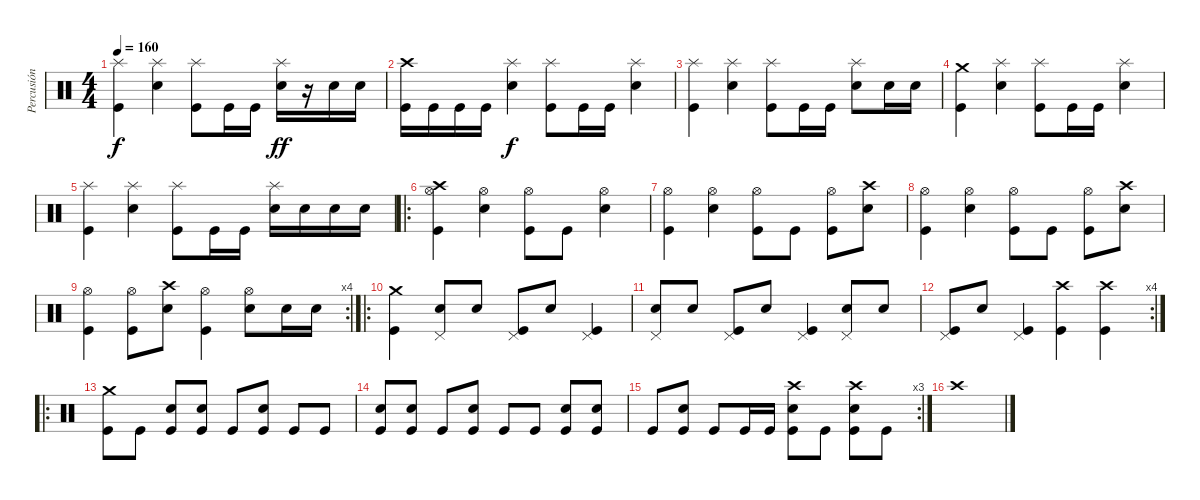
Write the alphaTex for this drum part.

\track ("Percusión" "Percusión") {instrument percussion}
\staff {score}
\articulation defaults
\ts (4 4)
\tempo 160
\clef neutral
\ks c
("Splash (hit)" "Kick (hit)").4{dy f} ("Splash (hit)" "Electric Snare (hit)").4 ("Splash (hit)" "Kick (hit)").8 "Kick (hit)".16 "Kick (hit)".16 ("Splash (hit)" "Electric Snare (hit)").16{dy ff} r.16 "Electric Snare (hit)".16 "Electric Snare (hit)".16 |
("Crash high (hit)" "Kick (hit)").16 "Kick (hit)".16 "Kick (hit)".16 "Kick (hit)".16 ("Splash (hit)" "Electric Snare (hit)").4{dy f} ("Splash (hit)" "Kick (hit)").8 "Kick (hit)".16 "Kick (hit)".16 ("Splash (hit)" "Electric Snare (hit)").4 |
("Splash (hit)" "Kick (hit)").4 ("Splash (hit)" "Electric Snare (hit)").4 ("Splash (hit)" "Kick (hit)").8 "Kick (hit)".16 "Kick (hit)".16 ("Splash (hit)" "Electric Snare (hit)").8 "Electric Snare (hit)".16 "Electric Snare (hit)".16 |
("Crash medium (hit)" "Kick (hit)").4 ("Splash (hit)" "Electric Snare (hit)").4 ("Splash (hit)" "Kick (hit)").8 "Kick (hit)".16 "Kick (hit)".16 ("Splash (hit)" "Electric Snare (hit)").4 |
("Splash (hit)" "Kick (hit)").4 ("Splash (hit)" "Electric Snare (hit)").4 ("Splash (hit)" "Kick (hit)").8 "Kick (hit)".16 "Kick (hit)".16 ("Splash (hit)" "Electric Snare (hit)").16 "Electric Snare (hit)".16 "Electric Snare (hit)".16 "Electric Snare (hit)".16 |
\ro
("Crash high (hit)" "Hi-Hat (open)" "Kick (hit)").4 ("Hi-Hat (open)" "Electric Snare (hit)").4 ("Hi-Hat (open)" "Kick (hit)").8 "Kick (hit)".8 ("Hi-Hat (open)" "Electric Snare (hit)").4 |
("Hi-Hat (open)" "Kick (hit)").4 ("Hi-Hat (open)" "Electric Snare (hit)").4 ("Hi-Hat (open)" "Kick (hit)").8 "Kick (hit)".8 ("Hi-Hat (open)" "Kick (hit)").8 ("Crash high (hit)" "Electric Snare (hit)").8 |
("Hi-Hat (open)" "Kick (hit)").4 ("Hi-Hat (open)" "Electric Snare (hit)").4 ("Hi-Hat (open)" "Kick (hit)").8 "Kick (hit)".8 ("Hi-Hat (open)" "Kick (hit)").8 ("Crash high (hit)" "Electric Snare (hit)").8 |
\rc 4
("Hi-Hat (open)" "Kick (hit)").4 ("Hi-Hat (open)" "Kick (hit)").8 ("Crash high (hit)" "Electric Snare (hit)").8 ("Hi-Hat (open)" "Kick (hit)").4 ("Hi-Hat (open)" "Electric Snare (hit)").8 "Electric Snare (hit)".16 "Electric Snare (hit)".16 |
\ro
("Crash medium (hit)" "Kick (hit)").4 ("Pedal Hi-Hat (hit)" "Electric Snare (hit)").8 "Electric Snare (hit)".8 ("Pedal Hi-Hat (hit)" "Kick (hit)").8 "Electric Snare (hit)".8 ("Pedal Hi-Hat (hit)" "Kick (hit)").4 |
("Pedal Hi-Hat (hit)" "Electric Snare (hit)").8 "Electric Snare (hit)".8 ("Pedal Hi-Hat (hit)" "Kick (hit)").8 "Electric Snare (hit)".8 ("Pedal Hi-Hat (hit)" "Kick (hit)").4 ("Pedal Hi-Hat (hit)" "Electric Snare (hit)").8 "Electric Snare (hit)".8 |
\rc 4
("Pedal Hi-Hat (hit)" "Kick (hit)").8 "Electric Snare (hit)".8 ("Pedal Hi-Hat (hit)" "Kick (hit)").4 ("Crash high (hit)" "Kick (hit)").4 ("Crash high (hit)" "Kick (hit)").4 |
\ro
("Crash medium (hit)" "Kick (hit)").8 "Kick (hit)".8 ("Electric Snare (hit)" "Kick (hit)").8 ("Electric Snare (hit)" "Kick (hit)").8 "Kick (hit)".8 ("Electric Snare (hit)" "Kick (hit)").8 "Kick (hit)".8 "Kick (hit)".8 |
("Electric Snare (hit)" "Kick (hit)").8 ("Electric Snare (hit)" "Kick (hit)").8 "Kick (hit)".8 ("Electric Snare (hit)" "Kick (hit)").8 "Kick (hit)".8 "Kick (hit)".8 ("Electric Snare (hit)" "Kick (hit)").8 ("Electric Snare (hit)" "Kick (hit)").8 |
\rc 3 "Kick (hit)".8
("Electric Snare (hit)" "Kick (hit)").8 "Kick (hit)".8 "Kick (hit)".16 "Kick (hit)".16 ("Crash high (hit)" "Electric Snare (hit)" "Kick (hit)").8 "Kick (hit)".8 ("Crash high (hit)" "Electric Snare (hit)" "Kick (hit)").8 "Kick (hit)".8 |
"Crash high (hit)".1
